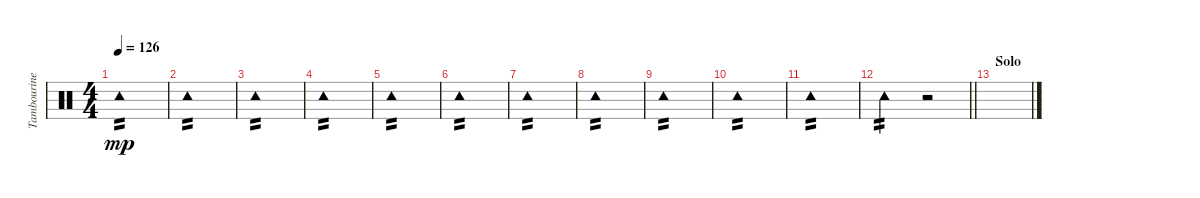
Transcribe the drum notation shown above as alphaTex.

\track ("Tambourine" "Tambourine") {instrument percussion}
\staff {score}
\articulation defaults
\ts (4 4)
\tempo 126
\clef neutral
\ks c "Tambourine (hit)".1{tp 2 dy mp}
|
"Tambourine (hit)".1{tp 2} |
"Tambourine (hit)".1{tp 2} |
"Tambourine (hit)".1{tp 2} |
"Tambourine (hit)".1{tp 2} |
"Tambourine (hit)".1{tp 2} |
"Tambourine (hit)".1{tp 2} |
"Tambourine (hit)".1{tp 2} |
"Tambourine (hit)".1{tp 2} |
"Tambourine (hit)".1{tp 2} |
"Tambourine (hit)".1{tp 2} |
\barLineRight lightlight "Tambourine (hit)".2{tp 2}
r.2 |
\section ("" "Solo")
